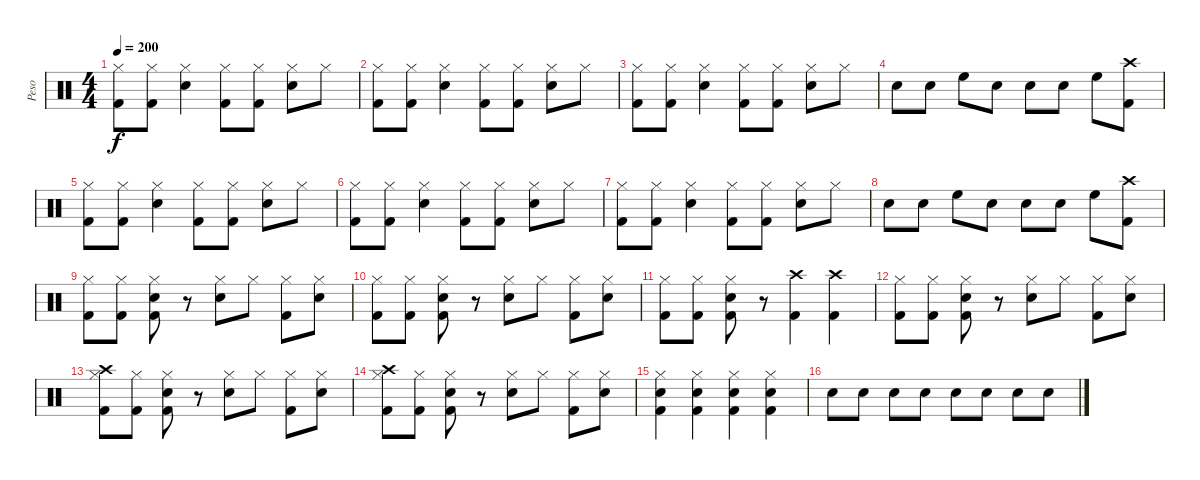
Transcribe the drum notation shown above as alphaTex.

\track ("Peso" "Peso") {instrument percussion}
\staff {score}
\articulation defaults
\ts (4 4)
\tempo 200
\clef neutral
\ks c
("Hi-Hat (closed)" "Kick (hit) 2").8{dy f} ("Hi-Hat (closed)" "Kick (hit) 2").8 ("Hi-Hat (closed)" "Snare (hit) 2").4 ("Hi-Hat (closed)" "Kick (hit) 2").8 ("Hi-Hat (closed)" "Kick (hit) 2").8 ("Hi-Hat (closed)" "Snare (hit) 2").8 "Hi-Hat (closed)".8 |
("Hi-Hat (closed)" "Kick (hit) 2").8 ("Hi-Hat (closed)" "Kick (hit) 2").8 ("Hi-Hat (closed)" "Snare (hit) 2").4 ("Hi-Hat (closed)" "Kick (hit) 2").8 ("Hi-Hat (closed)" "Kick (hit) 2").8 ("Hi-Hat (closed)" "Snare (hit) 2").8 "Hi-Hat (closed)".8 |
("Hi-Hat (closed)" "Kick (hit) 2").8 ("Hi-Hat (closed)" "Kick (hit) 2").8 ("Hi-Hat (closed)" "Snare (hit) 2").4 ("Hi-Hat (closed)" "Kick (hit) 2").8 ("Hi-Hat (closed)" "Kick (hit) 2").8 ("Hi-Hat (closed)" "Snare (hit) 2").8 "Hi-Hat (closed)".8 |
"Snare (hit) 2".8 "Snare (hit) 2".8 "High Floor Tom (hit)".8 "Snare (hit)"{x}.8 "Snare (hit) 2".8 "Snare (hit) 2".8 "High Floor Tom (hit)".8 ("Crash high (hit)" "Kick (hit) 2").8 |
("Hi-Hat (closed)" "Kick (hit) 2").8 ("Hi-Hat (closed)" "Kick (hit) 2").8 ("Hi-Hat (closed)" "Snare (hit) 2").4 ("Hi-Hat (closed)" "Kick (hit) 2").8 ("Hi-Hat (closed)" "Kick (hit) 2").8 ("Hi-Hat (closed)" "Snare (hit) 2").8 "Hi-Hat (closed)".8 |
("Hi-Hat (closed)" "Kick (hit) 2").8 ("Hi-Hat (closed)" "Kick (hit) 2").8 ("Hi-Hat (closed)" "Snare (hit) 2").4 ("Hi-Hat (closed)" "Kick (hit) 2").8 ("Hi-Hat (closed)" "Kick (hit) 2").8 ("Hi-Hat (closed)" "Snare (hit) 2").8 "Hi-Hat (closed)".8 |
("Hi-Hat (closed)" "Kick (hit) 2").8 ("Hi-Hat (closed)" "Kick (hit) 2").8 ("Hi-Hat (closed)" "Snare (hit) 2").4 ("Hi-Hat (closed)" "Kick (hit) 2").8 ("Hi-Hat (closed)" "Kick (hit) 2").8 ("Hi-Hat (closed)" "Snare (hit) 2").8 "Hi-Hat (closed)".8 |
"Snare (hit) 2".8 "Snare (hit) 2".8 "High Floor Tom (hit)".8 "Snare (hit)"{x}.8 "Snare (hit) 2".8 "Snare (hit) 2".8 "High Floor Tom (hit)".8 ("Crash high (hit)" "Kick (hit) 2").8 |
("Hi-Hat (closed)" "Kick (hit) 2").8 ("Hi-Hat (closed)" "Kick (hit) 2").8 ("Hi-Hat (closed)" "Snare (hit) 2" "Kick (hit) 2").8 r.8 ("Hi-Hat (closed)" "Snare (hit) 2").8 "Hi-Hat (closed)".8 ("Hi-Hat (closed)" "Kick (hit) 2").8 ("Hi-Hat (closed)" "Snare (hit) 2").8 |
("Hi-Hat (closed)" "Kick (hit) 2").8 ("Hi-Hat (closed)" "Kick (hit) 2").8 ("Hi-Hat (closed)" "Snare (hit) 2" "Kick (hit) 2").8 r.8 ("Hi-Hat (closed)" "Snare (hit) 2").8 "Hi-Hat (closed)".8 ("Hi-Hat (closed)" "Kick (hit) 2").8 ("Hi-Hat (closed)" "Snare (hit) 2").8 |
("Hi-Hat (closed)" "Kick (hit) 2").8 ("Hi-Hat (closed)" "Kick (hit) 2").8 ("Hi-Hat (closed)" "Snare (hit) 2" "Kick (hit) 2").8 r.8 ("Crash high (hit)" "Kick (hit) 2").4 ("Crash high (hit)" "Kick (hit) 2").4 |
("Hi-Hat (closed)" "Kick (hit) 2").8 ("Hi-Hat (closed)" "Kick (hit) 2").8 ("Hi-Hat (closed)" "Snare (hit) 2" "Kick (hit) 2").8 r.8 ("Hi-Hat (closed)" "Snare (hit) 2").8 "Hi-Hat (closed)".8 ("Hi-Hat (closed)" "Kick (hit) 2").8 ("Hi-Hat (closed)" "Snare (hit) 2").8 |
("Crash high (hit)" "Hi-Hat (closed)" "Kick (hit) 2").8 ("Hi-Hat (closed)" "Kick (hit) 2").8 ("Hi-Hat (closed)" "Snare (hit) 2" "Kick (hit) 2").8 r.8 ("Hi-Hat (closed)" "Snare (hit) 2").8 "Hi-Hat (closed)".8 ("Hi-Hat (closed)" "Kick (hit) 2").8 ("Hi-Hat (closed)" "Snare (hit) 2").8 |
("Crash high (hit)" "Hi-Hat (closed)" "Kick (hit) 2").8 ("Hi-Hat (closed)" "Kick (hit) 2").8 ("Hi-Hat (closed)" "Snare (hit) 2" "Kick (hit) 2").8 r.8 ("Hi-Hat (closed)" "Snare (hit) 2").8 "Hi-Hat (closed)".8 ("Hi-Hat (closed)" "Kick (hit) 2").8 ("Hi-Hat (closed)" "Snare (hit) 2").8 |
("Hi-Hat (closed)" "Snare (hit) 2" "Kick (hit) 2").4 ("Hi-Hat (closed)" "Snare (hit) 2" "Kick (hit) 2").4 ("Hi-Hat (closed)" "Snare (hit) 2" "Kick (hit) 2").4 ("Hi-Hat (closed)" "Snare (hit) 2" "Kick (hit) 2").4 |
"Snare (hit) 2".8 "Snare (hit) 2".8 "Snare (hit) 2".8 "Snare (hit) 2".8 "Snare (hit) 2".8 "Snare (hit) 2".8 "Snare (hit) 2".8 "Snare (hit) 2".8
